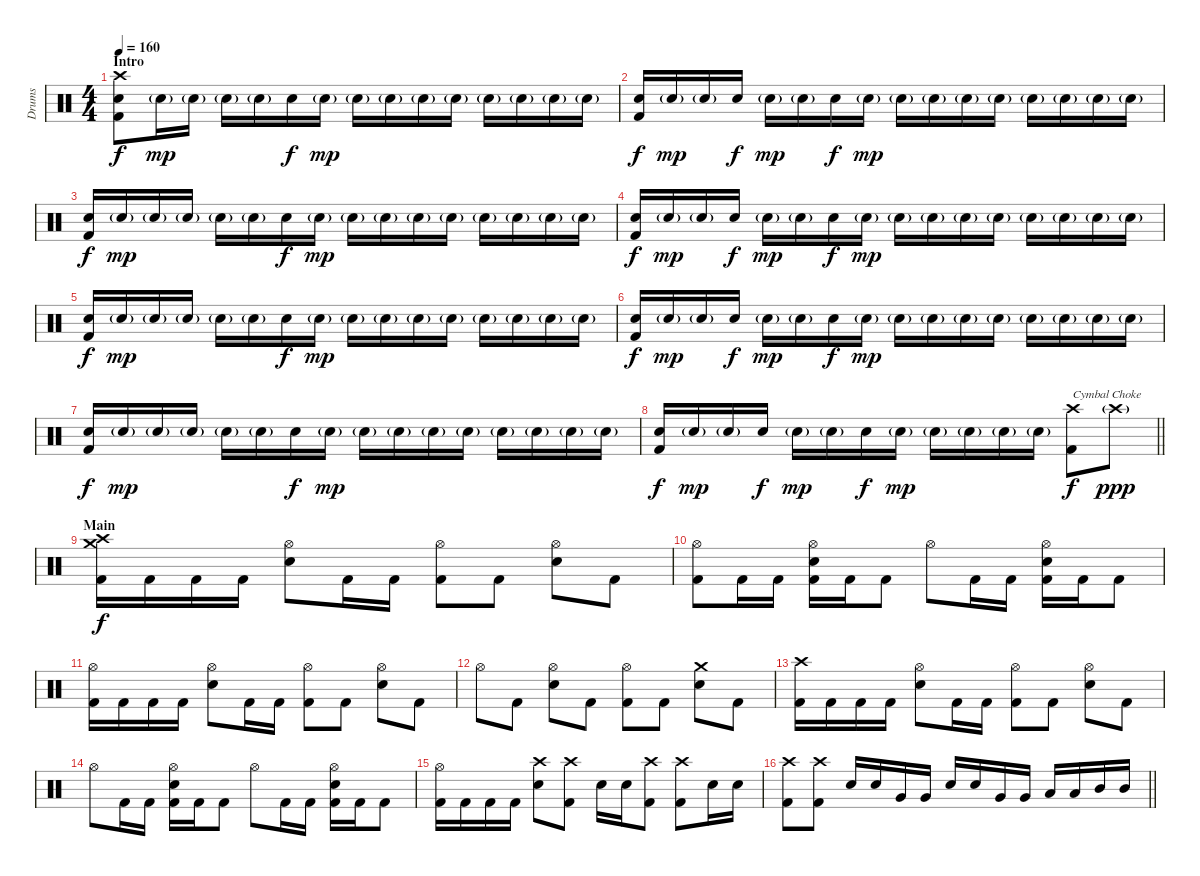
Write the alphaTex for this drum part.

\track ("Drums" "Drums") {instrument percussion}
\staff {score}
\articulation defaults
\ts (4 4)
\section ("" "Intro")
\tempo 160
\clef neutral
\ks c
("Crash high (hit)" "Electric Snare (hit)" "Kick (hit) 2").8{dy f} "Electric Snare (hit)"{g}.16{dy mp} "Electric Snare (hit)"{g}.16 "Electric Snare (hit)"{g}.16 "Electric Snare (hit)"{g}.16 "Electric Snare (hit)".16{dy f} "Electric Snare (hit)"{g}.16{dy mp} "Electric Snare (hit)"{g}.16 "Electric Snare (hit)"{g}.16 "Electric Snare (hit)"{g}.16 "Electric Snare (hit)"{g}.16 "Electric Snare (hit)"{g}.16 "Electric Snare (hit)"{g}.16 "Electric Snare (hit)"{g}.16 "Electric Snare (hit)"{g}.16 |
("Electric Snare (hit)" "Kick (hit) 2").16{dy f} "Electric Snare (hit)"{g}.16{dy mp} "Electric Snare (hit)"{g}.16 "Electric Snare (hit)".16{dy f} "Electric Snare (hit)"{g}.16{dy mp} "Electric Snare (hit)"{g}.16 "Electric Snare (hit)".16{dy f} "Electric Snare (hit)"{g}.16{dy mp} "Electric Snare (hit)"{g}.16 "Electric Snare (hit)"{g}.16 "Electric Snare (hit)"{g}.16 "Electric Snare (hit)"{g}.16 "Electric Snare (hit)"{g}.16 "Electric Snare (hit)"{g}.16 "Electric Snare (hit)"{g}.16 "Electric Snare (hit)"{g}.16 |
("Electric Snare (hit)" "Kick (hit) 2").16{dy f} "Electric Snare (hit)"{g}.16{dy mp} "Electric Snare (hit)"{g}.16 "Electric Snare (hit)"{g}.16 "Electric Snare (hit)"{g}.16 "Electric Snare (hit)"{g}.16 "Electric Snare (hit)".16{dy f} "Electric Snare (hit)"{g}.16{dy mp} "Electric Snare (hit)"{g}.16 "Electric Snare (hit)"{g}.16 "Electric Snare (hit)"{g}.16 "Electric Snare (hit)"{g}.16 "Electric Snare (hit)"{g}.16 "Electric Snare (hit)"{g}.16 "Electric Snare (hit)"{g}.16 "Electric Snare (hit)"{g}.16 |
("Electric Snare (hit)" "Kick (hit) 2").16{dy f} "Electric Snare (hit)"{g}.16{dy mp} "Electric Snare (hit)"{g}.16 "Electric Snare (hit)".16{dy f} "Electric Snare (hit)"{g}.16{dy mp} "Electric Snare (hit)"{g}.16 "Electric Snare (hit)".16{dy f} "Electric Snare (hit)"{g}.16{dy mp} "Electric Snare (hit)"{g}.16 "Electric Snare (hit)"{g}.16 "Electric Snare (hit)"{g}.16 "Electric Snare (hit)"{g}.16 "Electric Snare (hit)"{g}.16 "Electric Snare (hit)"{g}.16 "Electric Snare (hit)"{g}.16 "Electric Snare (hit)"{g}.16 |
("Electric Snare (hit)" "Kick (hit) 2").16{dy f} "Electric Snare (hit)"{g}.16{dy mp} "Electric Snare (hit)"{g}.16 "Electric Snare (hit)"{g}.16 "Electric Snare (hit)"{g}.16 "Electric Snare (hit)"{g}.16 "Electric Snare (hit)".16{dy f} "Electric Snare (hit)"{g}.16{dy mp} "Electric Snare (hit)"{g}.16 "Electric Snare (hit)"{g}.16 "Electric Snare (hit)"{g}.16 "Electric Snare (hit)"{g}.16 "Electric Snare (hit)"{g}.16 "Electric Snare (hit)"{g}.16 "Electric Snare (hit)"{g}.16 "Electric Snare (hit)"{g}.16 |
("Electric Snare (hit)" "Kick (hit) 2").16{dy f} "Electric Snare (hit)"{g}.16{dy mp} "Electric Snare (hit)"{g}.16 "Electric Snare (hit)".16{dy f} "Electric Snare (hit)"{g}.16{dy mp} "Electric Snare (hit)"{g}.16 "Electric Snare (hit)".16{dy f} "Electric Snare (hit)"{g}.16{dy mp} "Electric Snare (hit)"{g}.16 "Electric Snare (hit)"{g}.16 "Electric Snare (hit)"{g}.16 "Electric Snare (hit)"{g}.16 "Electric Snare (hit)"{g}.16 "Electric Snare (hit)"{g}.16 "Electric Snare (hit)"{g}.16 "Electric Snare (hit)"{g}.16 |
("Electric Snare (hit)" "Kick (hit) 2").16{dy f} "Electric Snare (hit)"{g}.16{dy mp} "Electric Snare (hit)"{g}.16 "Electric Snare (hit)"{g}.16 "Electric Snare (hit)"{g}.16 "Electric Snare (hit)"{g}.16 "Electric Snare (hit)".16{dy f} "Electric Snare (hit)"{g}.16{dy mp} "Electric Snare (hit)"{g}.16 "Electric Snare (hit)"{g}.16 "Electric Snare (hit)"{g}.16 "Electric Snare (hit)"{g}.16 "Electric Snare (hit)"{g}.16 "Electric Snare (hit)"{g}.16 "Electric Snare (hit)"{g}.16 "Electric Snare (hit)"{g}.16 |
\barLineRight lightlight
("Electric Snare (hit)" "Kick (hit) 2").16{dy f} "Electric Snare (hit)"{g}.16{dy mp} "Electric Snare (hit)"{g}.16 "Electric Snare (hit)".16{dy f} "Electric Snare (hit)"{g}.16{dy mp} "Electric Snare (hit)"{g}.16 "Electric Snare (hit)".16{dy f} "Electric Snare (hit)"{g}.16{dy mp} "Electric Snare (hit)"{g}.16 "Electric Snare (hit)"{g}.16 "Electric Snare (hit)"{g}.16 "Electric Snare (hit)"{g}.16 ("Crash high (hit)" "Kick (hit) 2").8{txt "Cymbal Choke" dy f} "Crash high (hit)"{g}.8{dy ppp} |
\section ("" "Main")
("Crash high (hit)" "Crash medium (hit)" "Kick (hit) 2").16{dy f} "Kick (hit) 2".16 "Kick (hit) 2".16 "Kick (hit) 2".16 ("Hi-Hat (open)" "Electric Snare (hit)").8 "Kick (hit) 2".16 "Kick (hit) 2".16 ("Hi-Hat (open)" "Kick (hit) 2").8 "Kick (hit) 2".8 ("Hi-Hat (open)" "Electric Snare (hit)").8 "Kick (hit) 2".8 |
("Hi-Hat (open)" "Kick (hit) 2").8 "Kick (hit) 2".16 "Kick (hit) 2".16 ("Hi-Hat (open)" "Electric Snare (hit)" "Kick (hit) 2").16 "Kick (hit) 2".16 "Kick (hit) 2".8 "Hi-Hat (open)".8 "Kick (hit) 2".16 "Kick (hit) 2".16 ("Hi-Hat (open)" "Electric Snare (hit)" "Kick (hit) 2").16 "Kick (hit) 2".16 "Kick (hit) 2".8 |
("Hi-Hat (open)" "Kick (hit) 2").16 "Kick (hit) 2".16 "Kick (hit) 2".16 "Kick (hit) 2".16 ("Hi-Hat (open)" "Electric Snare (hit)").8 "Kick (hit) 2".16 "Kick (hit) 2".16 ("Hi-Hat (open)" "Kick (hit) 2").8 "Kick (hit) 2".8 ("Hi-Hat (open)" "Electric Snare (hit)").8 "Kick (hit) 2".8 |
"Hi-Hat (open)".8 "Kick (hit) 2".8 ("Hi-Hat (open)" "Electric Snare (hit)").8 "Kick (hit) 2".8 ("Hi-Hat (open)" "Kick (hit) 2").8 "Kick (hit) 2".8 ("Crash medium (hit)" "Electric Snare (hit)").8 "Kick (hit) 2".8 |
("Crash high (hit)" "Kick (hit) 2").16 "Kick (hit) 2".16 "Kick (hit) 2".16 "Kick (hit) 2".16 ("Hi-Hat (open)" "Electric Snare (hit)").8 "Kick (hit) 2".16 "Kick (hit) 2".16 ("Hi-Hat (open)" "Kick (hit) 2").8 "Kick (hit) 2".8 ("Hi-Hat (open)" "Electric Snare (hit)").8 "Kick (hit) 2".8 |
"Hi-Hat (open)".8 "Kick (hit) 2".16 "Kick (hit) 2".16 ("Hi-Hat (open)" "Electric Snare (hit)" "Kick (hit) 2").16 "Kick (hit) 2".16 "Kick (hit) 2".8 "Hi-Hat (open)".8 "Kick (hit) 2".16 "Kick (hit) 2".16 ("Hi-Hat (open)" "Electric Snare (hit)" "Kick (hit) 2").16 "Kick (hit) 2".16 "Kick (hit) 2".8 |
("Hi-Hat (open)" "Kick (hit) 2").16 "Kick (hit) 2".16 "Kick (hit) 2".16 "Kick (hit) 2".16 ("Crash high (hit)" "Electric Snare (hit)").8 ("Crash high (hit)" "Kick (hit) 2").8 "Electric Snare (hit)".16 "Electric Snare (hit)".16 ("Crash high (hit)" "Kick (hit) 2").8 ("Crash high (hit)" "Kick (hit) 2").8 "Electric Snare (hit)".16 "Electric Snare (hit)".16 |
\barLineRight lightlight
("Crash high (hit)" "Kick (hit) 2").8 ("Crash high (hit)" "Kick (hit) 2").8 "Electric Snare (hit)".16 "Electric Snare (hit)".16 "Very Low Tom (hit)".16 "Very Low Tom (hit)".16 "Electric Snare (hit)".16 "Electric Snare (hit)".16 "Very Low Tom (hit)".16 "Very Low Tom (hit)".16 "Low Tom (hit)".16 "Low Tom (hit)".16 "Mid Tom (hit)".16 "Mid Tom (hit)".16
